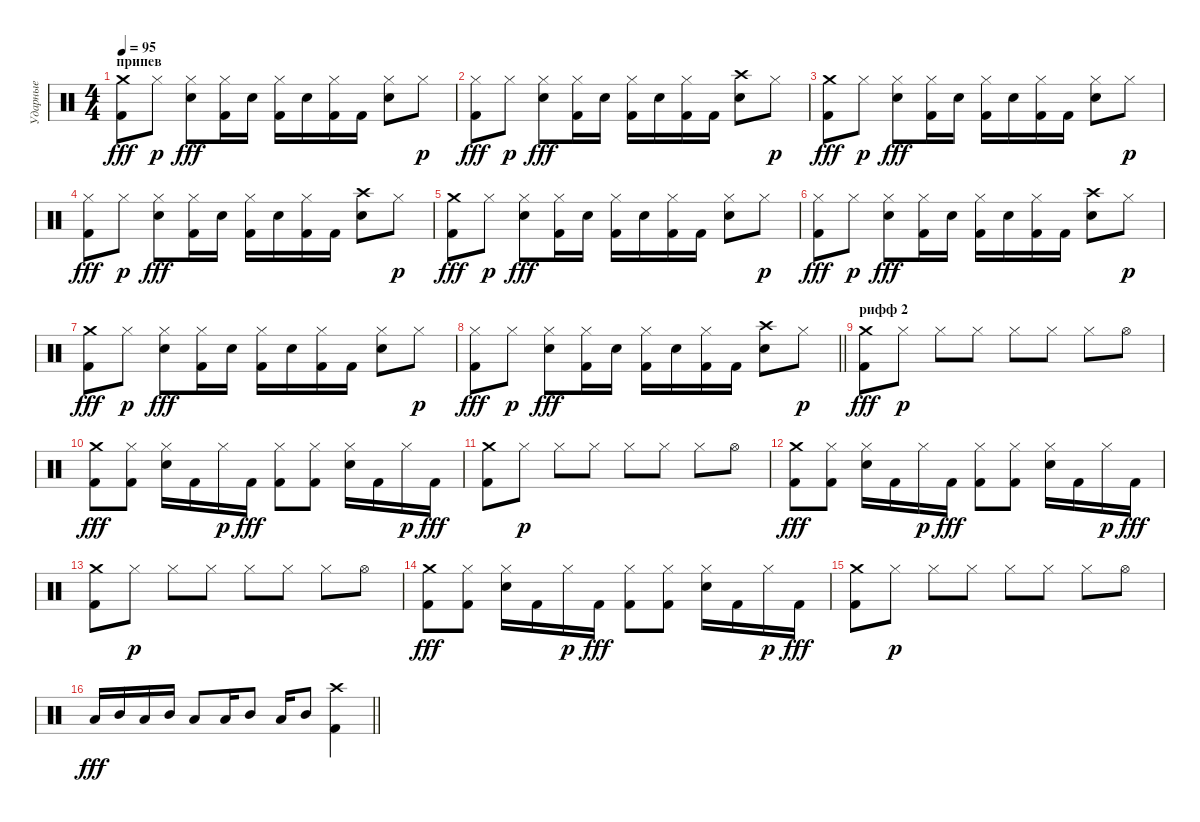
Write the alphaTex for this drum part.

\track ("Ударные" "Ударные") {instrument percussion}
\staff {score}
\articulation defaults
\ts (4 4)
\section ("" "припев")
\tempo 95
\clef neutral
\ks c
("Crash medium (hit)" "Kick (hit) 2").8{dy fff} "Hi-Hat (closed)".8{dy p} ("Hi-Hat (closed)" "Snare (hit) 2").8{dy fff} ("Hi-Hat (closed)" "Kick (hit) 2").16 "Snare (hit) 2".16 ("Hi-Hat (closed)" "Kick (hit) 2").16 "Snare (hit) 2".16 ("Hi-Hat (closed)" "Kick (hit) 2").16 "Kick (hit) 2".16 ("Hi-Hat (closed)" "Snare (hit) 2").8 "Hi-Hat (closed)".8{dy p} |
("Hi-Hat (closed)" "Kick (hit) 2").8{dy fff} "Hi-Hat (closed)".8{dy p} ("Hi-Hat (closed)" "Snare (hit) 2").8{dy fff} ("Hi-Hat (closed)" "Kick (hit) 2").16 "Snare (hit) 2".16 ("Hi-Hat (closed)" "Kick (hit) 2").16 "Snare (hit) 2".16 ("Hi-Hat (closed)" "Kick (hit) 2").16 "Kick (hit) 2".16 ("Crash high (hit)" "Snare (hit) 2").8 "Hi-Hat (closed)".8{dy p} |
("Crash medium (hit)" "Kick (hit) 2").8{dy fff} "Hi-Hat (closed)".8{dy p} ("Hi-Hat (closed)" "Snare (hit) 2").8{dy fff} ("Hi-Hat (closed)" "Kick (hit) 2").16 "Snare (hit) 2".16 ("Hi-Hat (closed)" "Kick (hit) 2").16 "Snare (hit) 2".16 ("Hi-Hat (closed)" "Kick (hit) 2").16 "Kick (hit) 2".16 ("Hi-Hat (closed)" "Snare (hit) 2").8 "Hi-Hat (closed)".8{dy p} |
("Hi-Hat (closed)" "Kick (hit) 2").8{dy fff} "Hi-Hat (closed)".8{dy p} ("Hi-Hat (closed)" "Snare (hit) 2").8{dy fff} ("Hi-Hat (closed)" "Kick (hit) 2").16 "Snare (hit) 2".16 ("Hi-Hat (closed)" "Kick (hit) 2").16 "Snare (hit) 2".16 ("Hi-Hat (closed)" "Kick (hit) 2").16 "Kick (hit) 2".16 ("Crash high (hit)" "Snare (hit) 2").8 "Hi-Hat (closed)".8{dy p} |
("Crash medium (hit)" "Kick (hit) 2").8{dy fff} "Hi-Hat (closed)".8{dy p} ("Hi-Hat (closed)" "Snare (hit) 2").8{dy fff} ("Hi-Hat (closed)" "Kick (hit) 2").16 "Snare (hit) 2".16 ("Hi-Hat (closed)" "Kick (hit) 2").16 "Snare (hit) 2".16 ("Hi-Hat (closed)" "Kick (hit) 2").16 "Kick (hit) 2".16 ("Hi-Hat (closed)" "Snare (hit) 2").8 "Hi-Hat (closed)".8{dy p} |
("Hi-Hat (closed)" "Kick (hit) 2").8{dy fff} "Hi-Hat (closed)".8{dy p} ("Hi-Hat (closed)" "Snare (hit) 2").8{dy fff} ("Hi-Hat (closed)" "Kick (hit) 2").16 "Snare (hit) 2".16 ("Hi-Hat (closed)" "Kick (hit) 2").16 "Snare (hit) 2".16 ("Hi-Hat (closed)" "Kick (hit) 2").16 "Kick (hit) 2".16 ("Crash high (hit)" "Snare (hit) 2").8 "Hi-Hat (closed)".8{dy p} |
("Crash medium (hit)" "Kick (hit) 2").8{dy fff} "Hi-Hat (closed)".8{dy p} ("Hi-Hat (closed)" "Snare (hit) 2").8{dy fff} ("Hi-Hat (closed)" "Kick (hit) 2").16 "Snare (hit) 2".16 ("Hi-Hat (closed)" "Kick (hit) 2").16 "Snare (hit) 2".16 ("Hi-Hat (closed)" "Kick (hit) 2").16 "Kick (hit) 2".16 ("Hi-Hat (closed)" "Snare (hit) 2").8 "Hi-Hat (closed)".8{dy p} |
\barLineRight lightlight
("Hi-Hat (closed)" "Kick (hit) 2").8{dy fff} "Hi-Hat (closed)".8{dy p} ("Hi-Hat (closed)" "Snare (hit) 2").8{dy fff} ("Hi-Hat (closed)" "Kick (hit) 2").16 "Snare (hit) 2".16 ("Hi-Hat (closed)" "Kick (hit) 2").16 "Snare (hit) 2".16 ("Hi-Hat (closed)" "Kick (hit) 2").16 "Kick (hit) 2".16 ("Crash high (hit)" "Snare (hit) 2").8 "Hi-Hat (closed)".8{dy p} |
\section ("" "рифф 2")
("Crash medium (hit)" "Kick (hit) 2").8{dy fff} "Hi-Hat (closed)".8{dy p} "Hi-Hat (closed)".8 "Hi-Hat (closed)".8 "Hi-Hat (closed)".8 "Hi-Hat (closed)".8 "Hi-Hat (closed)".8 "Hi-Hat (open)".8 |
("Crash medium (hit)" "Kick (hit) 2").8{dy fff} ("Hi-Hat (closed)" "Kick (hit) 2").8 ("Hi-Hat (closed)" "Snare (hit) 2").16 "Kick (hit) 2".16 "Hi-Hat (closed)".16{dy p} "Kick (hit) 2".16{dy fff} ("Hi-Hat (closed)" "Kick (hit) 2").8 ("Hi-Hat (closed)" "Kick (hit) 2").8 ("Hi-Hat (closed)" "Snare (hit) 2").16 "Kick (hit) 2".16 "Hi-Hat (closed)".16{dy p} "Kick (hit) 2".16{dy fff} |
("Crash medium (hit)" "Kick (hit) 2").8 "Hi-Hat (closed)".8{dy p} "Hi-Hat (closed)".8 "Hi-Hat (closed)".8 "Hi-Hat (closed)".8 "Hi-Hat (closed)".8 "Hi-Hat (closed)".8 "Hi-Hat (open)".8 |
("Crash medium (hit)" "Kick (hit) 2").8{dy fff} ("Hi-Hat (closed)" "Kick (hit) 2").8 ("Hi-Hat (closed)" "Snare (hit) 2").16 "Kick (hit) 2".16 "Hi-Hat (closed)".16{dy p} "Kick (hit) 2".16{dy fff} ("Hi-Hat (closed)" "Kick (hit) 2").8 ("Hi-Hat (closed)" "Kick (hit) 2").8 ("Hi-Hat (closed)" "Snare (hit) 2").16 "Kick (hit) 2".16 "Hi-Hat (closed)".16{dy p} "Kick (hit) 2".16{dy fff} |
("Crash medium (hit)" "Kick (hit) 2").8 "Hi-Hat (closed)".8{dy p} "Hi-Hat (closed)".8 "Hi-Hat (closed)".8 "Hi-Hat (closed)".8 "Hi-Hat (closed)".8 "Hi-Hat (closed)".8 "Hi-Hat (open)".8 |
("Crash medium (hit)" "Kick (hit) 2").8{dy fff} ("Hi-Hat (closed)" "Kick (hit) 2").8 ("Hi-Hat (closed)" "Snare (hit) 2").16 "Kick (hit) 2".16 "Hi-Hat (closed)".16{dy p} "Kick (hit) 2".16{dy fff} ("Hi-Hat (closed)" "Kick (hit) 2").8 ("Hi-Hat (closed)" "Kick (hit) 2").8 ("Hi-Hat (closed)" "Snare (hit) 2").16 "Kick (hit) 2".16 "Hi-Hat (closed)".16{dy p} "Kick (hit) 2".16{dy fff} |
("Crash medium (hit)" "Kick (hit) 2").8 "Hi-Hat (closed)".8{dy p} "Hi-Hat (closed)".8 "Hi-Hat (closed)".8 "Hi-Hat (closed)".8 "Hi-Hat (closed)".8 "Hi-Hat (closed)".8 "Hi-Hat (open)".8 |
\barLineRight lightlight "Low Tom (hit)".16{dy fff} "Mid Tom (hit)".16 "Low Tom (hit)".16 "Mid Tom (hit)".16 "Low Tom (hit)".8 "Low Tom (hit)".16 "Mid Tom (hit)".8 "Low Tom (hit)".16 "Mid Tom (hit)".8
("Crash high (hit)" "Kick (hit) 2").4
